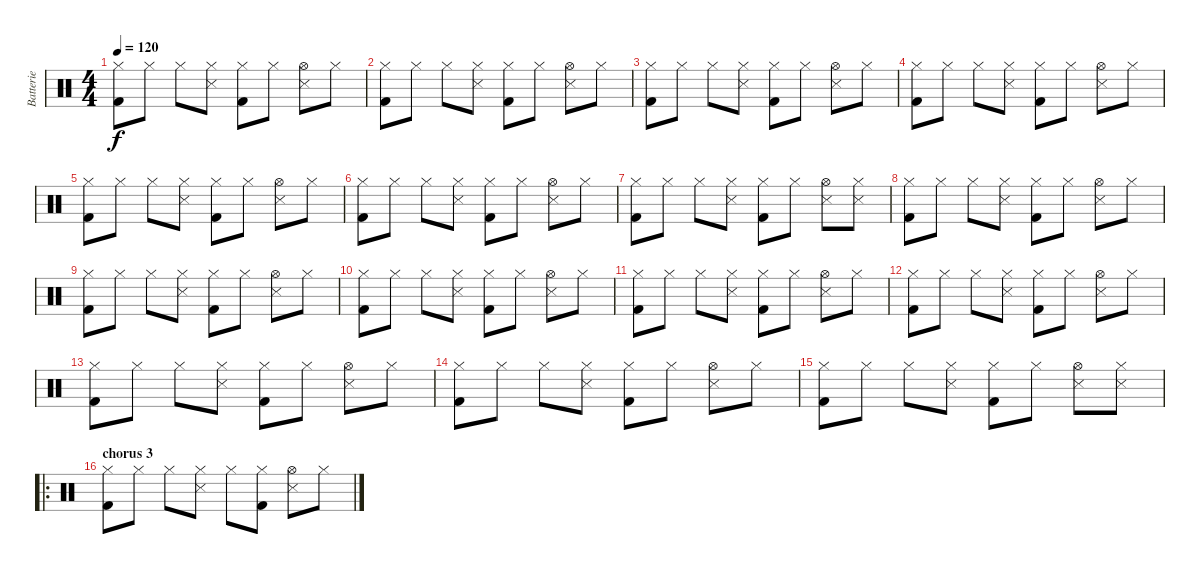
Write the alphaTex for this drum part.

\track ("Batterie" "Batterie") {instrument percussion}
\staff {score}
\articulation defaults
\ts (4 4)
\tempo 120
\clef neutral
\ks c
("Hi-Hat (closed)" "Kick (hit) 2").8{dy f} "Hi-Hat (closed)".8 "Hi-Hat (closed)".8 ("Hi-Hat (closed)" "Snare (side stick) 3").8 ("Hi-Hat (closed)" "Kick (hit) 2").8 "Hi-Hat (closed)".8 ("Hi-Hat (open)" "Snare (side stick) 3").8 "Hi-Hat (closed)".8 |
("Hi-Hat (closed)" "Kick (hit) 2").8 "Hi-Hat (closed)".8 "Hi-Hat (closed)".8 ("Hi-Hat (closed)" "Snare (side stick) 3").8 ("Hi-Hat (closed)" "Kick (hit) 2").8 "Hi-Hat (closed)".8 ("Hi-Hat (open)" "Snare (side stick) 3").8 "Hi-Hat (closed)".8 |
("Hi-Hat (closed)" "Kick (hit) 2").8 "Hi-Hat (closed)".8 "Hi-Hat (closed)".8 ("Hi-Hat (closed)" "Snare (side stick) 3").8 ("Hi-Hat (closed)" "Kick (hit) 2").8 "Hi-Hat (closed)".8 ("Hi-Hat (open)" "Snare (side stick) 3").8 "Hi-Hat (closed)".8 |
("Hi-Hat (closed)" "Kick (hit) 2").8 "Hi-Hat (closed)".8 "Hi-Hat (closed)".8 ("Hi-Hat (closed)" "Snare (side stick) 3").8 ("Hi-Hat (closed)" "Kick (hit) 2").8 "Hi-Hat (closed)".8 ("Hi-Hat (open)" "Snare (side stick) 3").8 "Hi-Hat (closed)".8 |
("Hi-Hat (closed)" "Kick (hit) 2").8 "Hi-Hat (closed)".8 "Hi-Hat (closed)".8 ("Hi-Hat (closed)" "Snare (side stick) 3").8 ("Hi-Hat (closed)" "Kick (hit) 2").8 "Hi-Hat (closed)".8 ("Hi-Hat (open)" "Snare (side stick) 3").8 "Hi-Hat (closed)".8 |
("Hi-Hat (closed)" "Kick (hit) 2").8 "Hi-Hat (closed)".8 "Hi-Hat (closed)".8 ("Hi-Hat (closed)" "Snare (side stick) 3").8 ("Hi-Hat (closed)" "Kick (hit) 2").8 "Hi-Hat (closed)".8 ("Hi-Hat (open)" "Snare (side stick) 3").8 "Hi-Hat (closed)".8 |
("Hi-Hat (closed)" "Kick (hit) 2").8 "Hi-Hat (closed)".8 "Hi-Hat (closed)".8 ("Hi-Hat (closed)" "Snare (side stick) 3").8 ("Hi-Hat (closed)" "Kick (hit) 2").8 "Hi-Hat (closed)".8 ("Hi-Hat (open)" "Snare (side stick) 3").8 ("Hi-Hat (closed)" "Snare (side stick) 3").8 |
("Hi-Hat (closed)" "Kick (hit) 2").8 "Hi-Hat (closed)".8 "Hi-Hat (closed)".8 ("Hi-Hat (closed)" "Snare (side stick) 3").8 ("Hi-Hat (closed)" "Kick (hit) 2").8 "Hi-Hat (closed)".8 ("Hi-Hat (open)" "Snare (side stick) 3").8 "Hi-Hat (closed)".8 |
("Hi-Hat (closed)" "Kick (hit) 2").8 "Hi-Hat (closed)".8 "Hi-Hat (closed)".8 ("Hi-Hat (closed)" "Snare (side stick) 3").8 ("Hi-Hat (closed)" "Kick (hit) 2").8 "Hi-Hat (closed)".8 ("Hi-Hat (open)" "Snare (side stick) 3").8 "Hi-Hat (closed)".8 |
("Hi-Hat (closed)" "Kick (hit) 2").8 "Hi-Hat (closed)".8 "Hi-Hat (closed)".8 ("Hi-Hat (closed)" "Snare (side stick) 3").8 ("Hi-Hat (closed)" "Kick (hit) 2").8 "Hi-Hat (closed)".8 ("Hi-Hat (open)" "Snare (side stick) 3").8 "Hi-Hat (closed)".8 |
("Hi-Hat (closed)" "Kick (hit) 2").8 "Hi-Hat (closed)".8 "Hi-Hat (closed)".8 ("Hi-Hat (closed)" "Snare (side stick) 3").8 ("Hi-Hat (closed)" "Kick (hit) 2").8 "Hi-Hat (closed)".8 ("Hi-Hat (open)" "Snare (side stick) 3").8 "Hi-Hat (closed)".8 |
("Hi-Hat (closed)" "Kick (hit) 2").8 "Hi-Hat (closed)".8 "Hi-Hat (closed)".8 ("Hi-Hat (closed)" "Snare (side stick) 3").8 ("Hi-Hat (closed)" "Kick (hit) 2").8 "Hi-Hat (closed)".8 ("Hi-Hat (open)" "Snare (side stick) 3").8 "Hi-Hat (closed)".8 |
("Hi-Hat (closed)" "Kick (hit) 2").8 "Hi-Hat (closed)".8 "Hi-Hat (closed)".8 ("Hi-Hat (closed)" "Snare (side stick) 3").8 ("Hi-Hat (closed)" "Kick (hit) 2").8 "Hi-Hat (closed)".8 ("Hi-Hat (open)" "Snare (side stick) 3").8 "Hi-Hat (closed)".8 |
("Hi-Hat (closed)" "Kick (hit) 2").8 "Hi-Hat (closed)".8 "Hi-Hat (closed)".8 ("Hi-Hat (closed)" "Snare (side stick) 3").8 ("Hi-Hat (closed)" "Kick (hit) 2").8 "Hi-Hat (closed)".8 ("Hi-Hat (open)" "Snare (side stick) 3").8 "Hi-Hat (closed)".8 |
("Hi-Hat (closed)" "Kick (hit) 2").8 "Hi-Hat (closed)".8 "Hi-Hat (closed)".8 ("Hi-Hat (closed)" "Snare (side stick) 3").8 ("Hi-Hat (closed)" "Kick (hit) 2").8 "Hi-Hat (closed)".8 ("Hi-Hat (open)" "Snare (side stick) 3").8 ("Hi-Hat (closed)" "Snare (side stick) 3").8 |
\ro
\section ("" "chorus 3")
("Hi-Hat (closed)" "Kick (hit) 2").8 "Hi-Hat (closed)".8 "Hi-Hat (closed)".8 ("Hi-Hat (closed)" "Snare (side stick) 3").8 "Hi-Hat (closed)".8 ("Hi-Hat (closed)" "Kick (hit) 2").8 ("Hi-Hat (open)" "Snare (side stick) 3").8 "Hi-Hat (closed)".8
